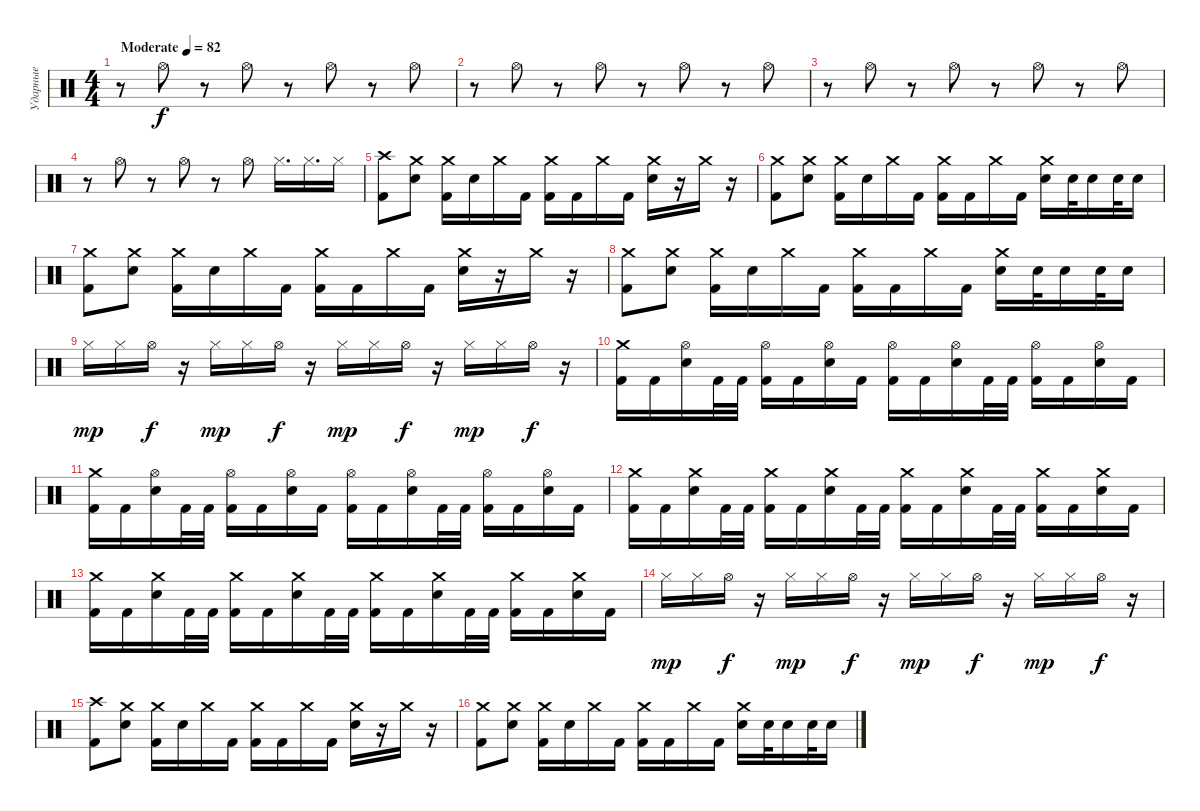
\track ("Ударные" "Ударные") {instrument percussion}
\staff {score}
\articulation defaults
\ts (4 4)
\tempo (82 "Moderate")
\clef neutral
\ks c
r.8{dy f} "Hi-Hat (open)".8 r.8 "Hi-Hat (open)".8 r.8 "Hi-Hat (open)".8 r.8 "Hi-Hat (open)".8 |
r.8 "Hi-Hat (open)".8 r.8 "Hi-Hat (open)".8 r.8 "Hi-Hat (open)".8 r.8 "Hi-Hat (open)".8 |
r.8 "Hi-Hat (open)".8 r.8 "Hi-Hat (open)".8 r.8 "Hi-Hat (open)".8 r.8 "Hi-Hat (open)".8 |
r.8 "Hi-Hat (open)".8 r.8 "Hi-Hat (open)".8 r.8 "Hi-Hat (open)".8 "Hi-Hat (closed)".16{d} "Hi-Hat (closed)".16{d} "Hi-Hat (closed)".16 |
("Crash high (hit)" "Kick (hit) 2").8 ("Crash medium (hit)" "Electric Snare (hit)").8 ("Crash medium (hit)" "Kick (hit) 2").16 "Electric Snare (hit)".16 "Crash medium (hit)".16 "Kick (hit) 2".16 ("Crash medium (hit)" "Kick (hit) 2").16 "Kick (hit) 2".16 "Crash medium (hit)".16 "Kick (hit) 2".16 ("Crash medium (hit)" "Electric Snare (hit)").16 r.16 "Crash medium (hit)".16 r.16 |
("Crash medium (hit)" "Kick (hit) 2").8 ("Crash medium (hit)" "Electric Snare (hit)").8 ("Crash medium (hit)" "Kick (hit) 2").16 "Electric Snare (hit)".16 "Crash medium (hit)".16 "Kick (hit) 2".16 ("Crash medium (hit)" "Kick (hit) 2").16 "Kick (hit) 2".16 "Crash medium (hit)".16 "Kick (hit) 2".16 ("Crash medium (hit)" "Electric Snare (hit)").16 "Electric Snare (hit)".32 "Electric Snare (hit)".16 "Electric Snare (hit)".32 "Electric Snare (hit)".16 |
("Crash medium (hit)" "Kick (hit) 2").8 ("Crash medium (hit)" "Electric Snare (hit)").8 ("Crash medium (hit)" "Kick (hit) 2").16 "Electric Snare (hit)".16 "Crash medium (hit)".16 "Kick (hit) 2".16 ("Crash medium (hit)" "Kick (hit) 2").16 "Kick (hit) 2".16 "Crash medium (hit)".16 "Kick (hit) 2".16 ("Crash medium (hit)" "Electric Snare (hit)").16 r.16 "Crash medium (hit)".16 r.16 |
("Crash medium (hit)" "Kick (hit) 2").8 ("Crash medium (hit)" "Electric Snare (hit)").8 ("Crash medium (hit)" "Kick (hit) 2").16 "Electric Snare (hit)".16 "Crash medium (hit)".16 "Kick (hit) 2".16 ("Crash medium (hit)" "Kick (hit) 2").16 "Kick (hit) 2".16 "Crash medium (hit)".16 "Kick (hit) 2".16 ("Crash medium (hit)" "Electric Snare (hit)").16 "Electric Snare (hit)".32 "Electric Snare (hit)".16 "Electric Snare (hit)".32 "Electric Snare (hit)".16 |
"Hi-Hat (closed)".16{dy mp} "Hi-Hat (closed)".16 "Hi-Hat (open)".16{dy f} r.16 "Hi-Hat (closed)".16{dy mp} "Hi-Hat (closed)".16 "Hi-Hat (open)".16{dy f} r.16 "Hi-Hat (closed)".16{dy mp} "Hi-Hat (closed)".16 "Hi-Hat (open)".16{dy f} r.16 "Hi-Hat (closed)".16{dy mp} "Hi-Hat (closed)".16 "Hi-Hat (open)".16{dy f} r.16 |
("Crash medium (hit)" "Kick (hit) 2").16 "Kick (hit) 2".16 ("Hi-Hat (open)" "Electric Snare (hit)").16 "Kick (hit) 2".32 "Kick (hit) 2".32 ("Hi-Hat (open)" "Kick (hit) 2").16 "Kick (hit) 2".16 ("Hi-Hat (open)" "Electric Snare (hit)").16 "Kick (hit) 2".16 ("Hi-Hat (open)" "Kick (hit) 2").16 "Kick (hit) 2".16 ("Hi-Hat (open)" "Electric Snare (hit)").16 "Kick (hit) 2".32 "Kick (hit) 2".32 ("Hi-Hat (open)" "Kick (hit) 2").16 "Kick (hit) 2".16 ("Hi-Hat (open)" "Electric Snare (hit)").16 "Kick (hit) 2".16 |
("Crash medium (hit)" "Kick (hit) 2").16 "Kick (hit) 2".16 ("Hi-Hat (open)" "Electric Snare (hit)").16 "Kick (hit) 2".32 "Kick (hit) 2".32 ("Hi-Hat (open)" "Kick (hit) 2").16 "Kick (hit) 2".16 ("Hi-Hat (open)" "Electric Snare (hit)").16 "Kick (hit) 2".16 ("Hi-Hat (open)" "Kick (hit) 2").16 "Kick (hit) 2".16 ("Hi-Hat (open)" "Electric Snare (hit)").16 "Kick (hit) 2".32 "Kick (hit) 2".32 ("Hi-Hat (open)" "Kick (hit) 2").16 "Kick (hit) 2".16 ("Hi-Hat (open)" "Electric Snare (hit)").16 "Kick (hit) 2".16 |
("Crash medium (hit)" "Kick (hit) 2").16 "Kick (hit) 2".16 ("Crash medium (hit)" "Electric Snare (hit)").16 "Kick (hit) 2".32 "Kick (hit) 2".32 ("Crash medium (hit)" "Kick (hit) 2").16 "Kick (hit) 2".16 ("Crash medium (hit)" "Electric Snare (hit)").16 "Kick (hit) 2".32 "Kick (hit) 2".32 ("Crash medium (hit)" "Kick (hit) 2").16 "Kick (hit) 2".16 ("Crash medium (hit)" "Electric Snare (hit)").16 "Kick (hit) 2".32 "Kick (hit) 2".32 ("Crash medium (hit)" "Kick (hit) 2").16 "Kick (hit) 2".16 ("Crash medium (hit)" "Electric Snare (hit)").16 "Kick (hit) 2".16 |
("Crash medium (hit)" "Kick (hit) 2").16 "Kick (hit) 2".16 ("Crash medium (hit)" "Electric Snare (hit)").16 "Kick (hit) 2".32 "Kick (hit) 2".32 ("Crash medium (hit)" "Kick (hit) 2").16 "Kick (hit) 2".16 ("Crash medium (hit)" "Electric Snare (hit)").16 "Kick (hit) 2".32 "Kick (hit) 2".32 ("Crash medium (hit)" "Kick (hit) 2").16 "Kick (hit) 2".16 ("Crash medium (hit)" "Electric Snare (hit)").16 "Kick (hit) 2".32 "Kick (hit) 2".32 ("Crash medium (hit)" "Kick (hit) 2").16 "Kick (hit) 2".16 ("Crash medium (hit)" "Electric Snare (hit)").16 "Kick (hit) 2".16 |
"Hi-Hat (closed)".16{dy mp} "Hi-Hat (closed)".16 "Hi-Hat (open)".16{dy f} r.16 "Hi-Hat (closed)".16{dy mp} "Hi-Hat (closed)".16 "Hi-Hat (open)".16{dy f} r.16 "Hi-Hat (closed)".16{dy mp} "Hi-Hat (closed)".16 "Hi-Hat (open)".16{dy f} r.16 "Hi-Hat (closed)".16{dy mp} "Hi-Hat (closed)".16 "Hi-Hat (open)".16{dy f} r.16 |
("Crash high (hit)" "Kick (hit) 2").8 ("Crash medium (hit)" "Electric Snare (hit)").8 ("Crash medium (hit)" "Kick (hit) 2").16 "Electric Snare (hit)".16 "Crash medium (hit)".16 "Kick (hit) 2".16 ("Crash medium (hit)" "Kick (hit) 2").16 "Kick (hit) 2".16 "Crash medium (hit)".16 "Kick (hit) 2".16 ("Crash medium (hit)" "Electric Snare (hit)").16 r.16 "Crash medium (hit)".16 r.16 |
("Crash medium (hit)" "Kick (hit) 2").8 ("Crash medium (hit)" "Electric Snare (hit)").8 ("Crash medium (hit)" "Kick (hit) 2").16 "Electric Snare (hit)".16 "Crash medium (hit)".16 "Kick (hit) 2".16 ("Crash medium (hit)" "Kick (hit) 2").16 "Kick (hit) 2".16 "Crash medium (hit)".16 "Kick (hit) 2".16 ("Crash medium (hit)" "Electric Snare (hit)").16 "Electric Snare (hit)".32 "Electric Snare (hit)".16 "Electric Snare (hit)".32 "Electric Snare (hit)".16
